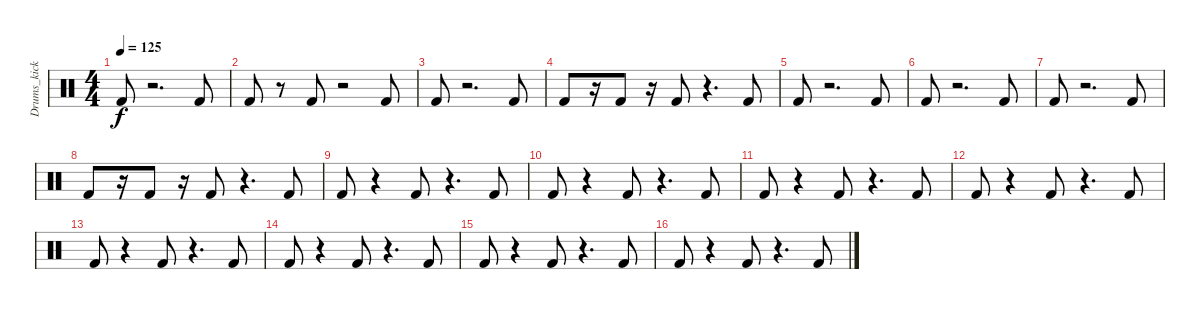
\track ("Drums_kick" "Drums_kick") {instrument percussion}
\staff {score}
\articulation defaults
\ts (4 4)
\tempo 125
\clef neutral
\ks c "Kick (hit) 2".8{dy f}
r.2{d} "Kick (hit) 2".8 |
"Kick (hit) 2".8 r.8 "Kick (hit) 2".8 r.2 "Kick (hit) 2".8 |
"Kick (hit) 2".8 r.2{d} "Kick (hit) 2".8 |
"Kick (hit) 2".8 r.16 "Kick (hit) 2".8 r.16 "Kick (hit) 2".8 r.4{d} "Kick (hit) 2".8 |
"Kick (hit) 2".8 r.2{d} "Kick (hit) 2".8 |
"Kick (hit) 2".8 r.2{d} "Kick (hit) 2".8 |
"Kick (hit) 2".8 r.2{d} "Kick (hit) 2".8 |
"Kick (hit) 2".8 r.16 "Kick (hit) 2".8 r.16 "Kick (hit) 2".8 r.4{d} "Kick (hit) 2".8 |
"Kick (hit) 2".8 r.4 "Kick (hit) 2".8 r.4{d} "Kick (hit) 2".8 |
"Kick (hit) 2".8 r.4 "Kick (hit) 2".8 r.4{d} "Kick (hit) 2".8 |
"Kick (hit) 2".8 r.4 "Kick (hit) 2".8 r.4{d} "Kick (hit) 2".8 |
"Kick (hit) 2".8 r.4 "Kick (hit) 2".8 r.4{d} "Kick (hit) 2".8 |
"Kick (hit) 2".8 r.4 "Kick (hit) 2".8 r.4{d} "Kick (hit) 2".8 |
"Kick (hit) 2".8 r.4 "Kick (hit) 2".8 r.4{d} "Kick (hit) 2".8 |
"Kick (hit) 2".8 r.4 "Kick (hit) 2".8 r.4{d} "Kick (hit) 2".8 |
"Kick (hit) 2".8 r.4 "Kick (hit) 2".8 r.4{d} "Kick (hit) 2".8
